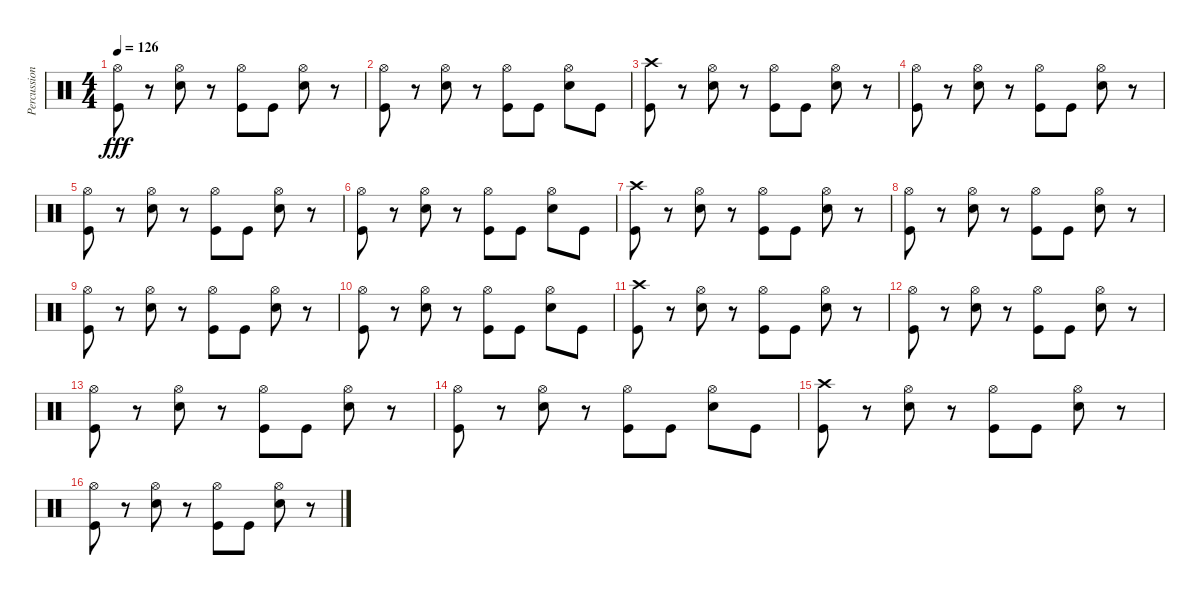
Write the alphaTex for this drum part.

\track ("Percussions" "Percussion") {instrument percussion}
\staff {score}
\articulation defaults
\ts (4 4)
\tempo 126
\clef neutral
\ks c
("Hi-Hat (open)" "Kick (hit)").8{dy fff} r.8 ("Hi-Hat (open)" "Electric Snare (hit)").8 r.8 ("Hi-Hat (open)" "Kick (hit)").8 "Kick (hit)".8 ("Hi-Hat (open)" "Electric Snare (hit)").8 r.8 |
("Hi-Hat (open)" "Kick (hit)").8 r.8 ("Hi-Hat (open)" "Electric Snare (hit)").8 r.8 ("Hi-Hat (open)" "Kick (hit)").8 "Kick (hit)".8 ("Hi-Hat (open)" "Electric Snare (hit)").8 "Kick (hit)".8 |
("Crash high (hit)" "Kick (hit)").8 r.8 ("Hi-Hat (open)" "Electric Snare (hit)").8 r.8 ("Hi-Hat (open)" "Kick (hit)").8 "Kick (hit)".8 ("Hi-Hat (open)" "Electric Snare (hit)").8 r.8 |
("Hi-Hat (open)" "Kick (hit)").8 r.8 ("Hi-Hat (open)" "Electric Snare (hit)").8 r.8 ("Hi-Hat (open)" "Kick (hit)").8 "Kick (hit)".8 ("Hi-Hat (open)" "Electric Snare (hit)").8 r.8 |
("Hi-Hat (open)" "Kick (hit)").8 r.8 ("Hi-Hat (open)" "Electric Snare (hit)").8 r.8 ("Hi-Hat (open)" "Kick (hit)").8 "Kick (hit)".8 ("Hi-Hat (open)" "Electric Snare (hit)").8 r.8 |
("Hi-Hat (open)" "Kick (hit)").8 r.8 ("Hi-Hat (open)" "Electric Snare (hit)").8 r.8 ("Hi-Hat (open)" "Kick (hit)").8 "Kick (hit)".8 ("Hi-Hat (open)" "Electric Snare (hit)").8 "Kick (hit)".8 |
("Crash high (hit)" "Kick (hit)").8 r.8 ("Hi-Hat (open)" "Electric Snare (hit)").8 r.8 ("Hi-Hat (open)" "Kick (hit)").8 "Kick (hit)".8 ("Hi-Hat (open)" "Electric Snare (hit)").8 r.8 |
("Hi-Hat (open)" "Kick (hit)").8 r.8 ("Hi-Hat (open)" "Electric Snare (hit)").8 r.8 ("Hi-Hat (open)" "Kick (hit)").8 "Kick (hit)".8 ("Hi-Hat (open)" "Electric Snare (hit)").8 r.8 |
("Hi-Hat (open)" "Kick (hit)").8 r.8 ("Hi-Hat (open)" "Electric Snare (hit)").8 r.8 ("Hi-Hat (open)" "Kick (hit)").8 "Kick (hit)".8 ("Hi-Hat (open)" "Electric Snare (hit)").8 r.8 |
("Hi-Hat (open)" "Kick (hit)").8 r.8 ("Hi-Hat (open)" "Electric Snare (hit)").8 r.8 ("Hi-Hat (open)" "Kick (hit)").8 "Kick (hit)".8 ("Hi-Hat (open)" "Electric Snare (hit)").8 "Kick (hit)".8 |
("Crash high (hit)" "Kick (hit)").8 r.8 ("Hi-Hat (open)" "Electric Snare (hit)").8 r.8 ("Hi-Hat (open)" "Kick (hit)").8 "Kick (hit)".8 ("Hi-Hat (open)" "Electric Snare (hit)").8 r.8 |
("Hi-Hat (open)" "Kick (hit)").8 r.8 ("Hi-Hat (open)" "Electric Snare (hit)").8 r.8 ("Hi-Hat (open)" "Kick (hit)").8 "Kick (hit)".8 ("Hi-Hat (open)" "Electric Snare (hit)").8 r.8 |
("Hi-Hat (open)" "Kick (hit)").8 r.8 ("Hi-Hat (open)" "Electric Snare (hit)").8 r.8 ("Hi-Hat (open)" "Kick (hit)").8 "Kick (hit)".8 ("Hi-Hat (open)" "Electric Snare (hit)").8 r.8 |
("Hi-Hat (open)" "Kick (hit)").8 r.8 ("Hi-Hat (open)" "Electric Snare (hit)").8 r.8 ("Hi-Hat (open)" "Kick (hit)").8 "Kick (hit)".8 ("Hi-Hat (open)" "Electric Snare (hit)").8 "Kick (hit)".8 |
("Crash high (hit)" "Kick (hit)").8 r.8 ("Hi-Hat (open)" "Electric Snare (hit)").8 r.8 ("Hi-Hat (open)" "Kick (hit)").8 "Kick (hit)".8 ("Hi-Hat (open)" "Electric Snare (hit)").8 r.8 |
("Hi-Hat (open)" "Kick (hit)").8 r.8 ("Hi-Hat (open)" "Electric Snare (hit)").8 r.8 ("Hi-Hat (open)" "Kick (hit)").8 "Kick (hit)".8 ("Hi-Hat (open)" "Electric Snare (hit)").8 r.8
